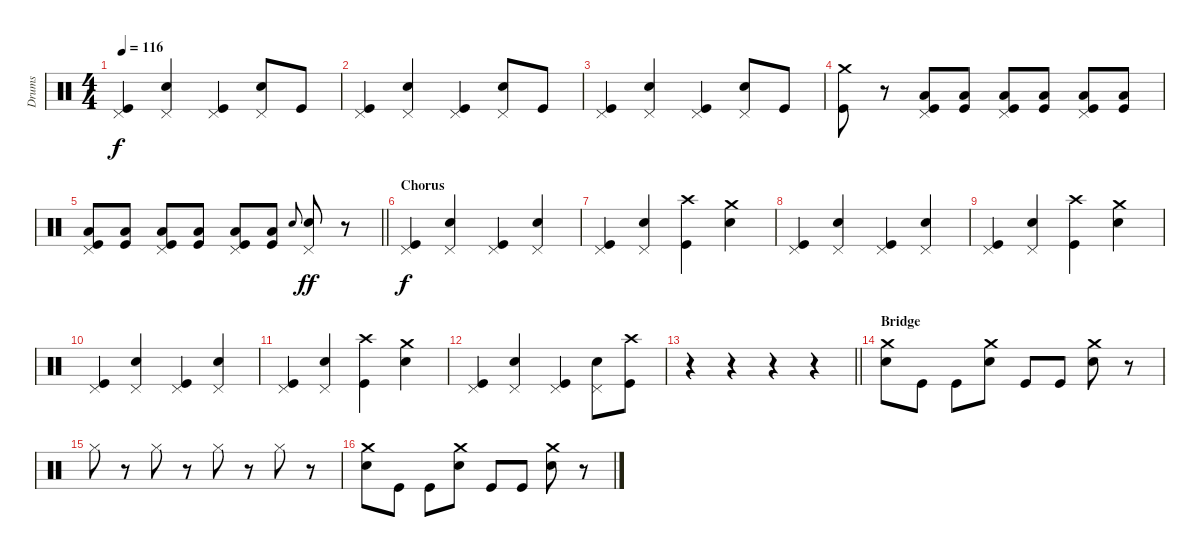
\track ("Drums" "Drums") {instrument percussion}
\staff {score}
\articulation defaults
\ts (4 4)
\tempo 116
\clef neutral
\ks c
("Pedal Hi-Hat (hit)" "Kick (hit)").4{dy f} ("Pedal Hi-Hat (hit)" "Electric Snare (hit)").4 ("Pedal Hi-Hat (hit)" "Kick (hit)").4 ("Pedal Hi-Hat (hit)" "Electric Snare (hit)").8 "Kick (hit)".8 |
("Pedal Hi-Hat (hit)" "Kick (hit)").4 ("Pedal Hi-Hat (hit)" "Electric Snare (hit)").4 ("Pedal Hi-Hat (hit)" "Kick (hit)").4 ("Pedal Hi-Hat (hit)" "Electric Snare (hit)").8 "Kick (hit)".8 |
("Pedal Hi-Hat (hit)" "Kick (hit)").4 ("Pedal Hi-Hat (hit)" "Electric Snare (hit)").4 ("Pedal Hi-Hat (hit)" "Kick (hit)").4 ("Pedal Hi-Hat (hit)" "Electric Snare (hit)").8 "Kick (hit)".8 |
("Crash medium (hit)" "Kick (hit)").8 r.8 ("Pedal Hi-Hat (hit)" "Low Floor Tom (hit)" "Kick (hit)").8 ("Low Floor Tom (hit)" "Kick (hit)").8 ("Pedal Hi-Hat (hit)" "Low Floor Tom (hit)" "Kick (hit)").8 ("Low Floor Tom (hit)" "Kick (hit)").8 ("Pedal Hi-Hat (hit)" "Low Floor Tom (hit)" "Kick (hit)").8 ("Low Floor Tom (hit)" "Kick (hit)").8 |
\barLineRight lightlight
("Pedal Hi-Hat (hit)" "Low Floor Tom (hit)" "Kick (hit)").8 ("Low Floor Tom (hit)" "Kick (hit)").8 ("Pedal Hi-Hat (hit)" "Low Floor Tom (hit)" "Kick (hit)").8 ("Low Floor Tom (hit)" "Kick (hit)").8 ("Pedal Hi-Hat (hit)" "Low Floor Tom (hit)" "Kick (hit)").8 ("Low Floor Tom (hit)" "Kick (hit)").8 "Snare (hit) 2".8{gr onbeat} ("Pedal Hi-Hat (hit)" "Snare (hit) 2").8{dy ff} r.8 |
\section ("" "Chorus")
("Pedal Hi-Hat (hit)" "Kick (hit)").4{dy f} ("Pedal Hi-Hat (hit)" "Electric Snare (hit)").4 ("Pedal Hi-Hat (hit)" "Kick (hit)").4 ("Pedal Hi-Hat (hit)" "Electric Snare (hit)").4 |
("Pedal Hi-Hat (hit)" "Kick (hit)").4 ("Pedal Hi-Hat (hit)" "Electric Snare (hit)").4 ("Crash high (hit)" "Kick (hit)").4 ("Crash medium (hit)" "Electric Snare (hit)").4 |
("Pedal Hi-Hat (hit)" "Kick (hit)").4 ("Pedal Hi-Hat (hit)" "Electric Snare (hit)").4 ("Pedal Hi-Hat (hit)" "Kick (hit)").4 ("Pedal Hi-Hat (hit)" "Electric Snare (hit)").4 |
("Pedal Hi-Hat (hit)" "Kick (hit)").4 ("Pedal Hi-Hat (hit)" "Electric Snare (hit)").4 ("Crash high (hit)" "Kick (hit)").4 ("Crash medium (hit)" "Electric Snare (hit)").4 |
("Pedal Hi-Hat (hit)" "Kick (hit)").4 ("Pedal Hi-Hat (hit)" "Electric Snare (hit)").4 ("Pedal Hi-Hat (hit)" "Kick (hit)").4 ("Pedal Hi-Hat (hit)" "Electric Snare (hit)").4 |
("Pedal Hi-Hat (hit)" "Kick (hit)").4 ("Pedal Hi-Hat (hit)" "Electric Snare (hit)").4 ("Crash high (hit)" "Kick (hit)").4 ("Crash medium (hit)" "Electric Snare (hit)").4 |
("Pedal Hi-Hat (hit)" "Kick (hit)").4 ("Pedal Hi-Hat (hit)" "Electric Snare (hit)").4 ("Pedal Hi-Hat (hit)" "Kick (hit)").4 ("Pedal Hi-Hat (hit)" "Electric Snare (hit)").8 ("Crash high (hit)" "Kick (hit)").8 |
\barLineRight lightlight
r.4 r.4 r.4 r.4 |
\section ("" "Bridge")
("Crash medium (hit)" "Electric Snare (hit)").8 "Kick (hit)".8 "Kick (hit)".8 ("Crash medium (hit)" "Electric Snare (hit)").8 "Kick (hit)".8 "Kick (hit)".8 ("Crash medium (hit)" "Electric Snare (hit)").8 r.8 |
"Hi-Hat (closed)".8 r.8 "Hi-Hat (closed)".8 r.8 "Hi-Hat (closed)".8 r.8 "Hi-Hat (closed)".8 r.8 |
("Crash medium (hit)" "Electric Snare (hit)").8 "Kick (hit)".8 "Kick (hit)".8 ("Crash medium (hit)" "Electric Snare (hit)").8 "Kick (hit)".8 "Kick (hit)".8 ("Crash medium (hit)" "Electric Snare (hit)").8 r.8
